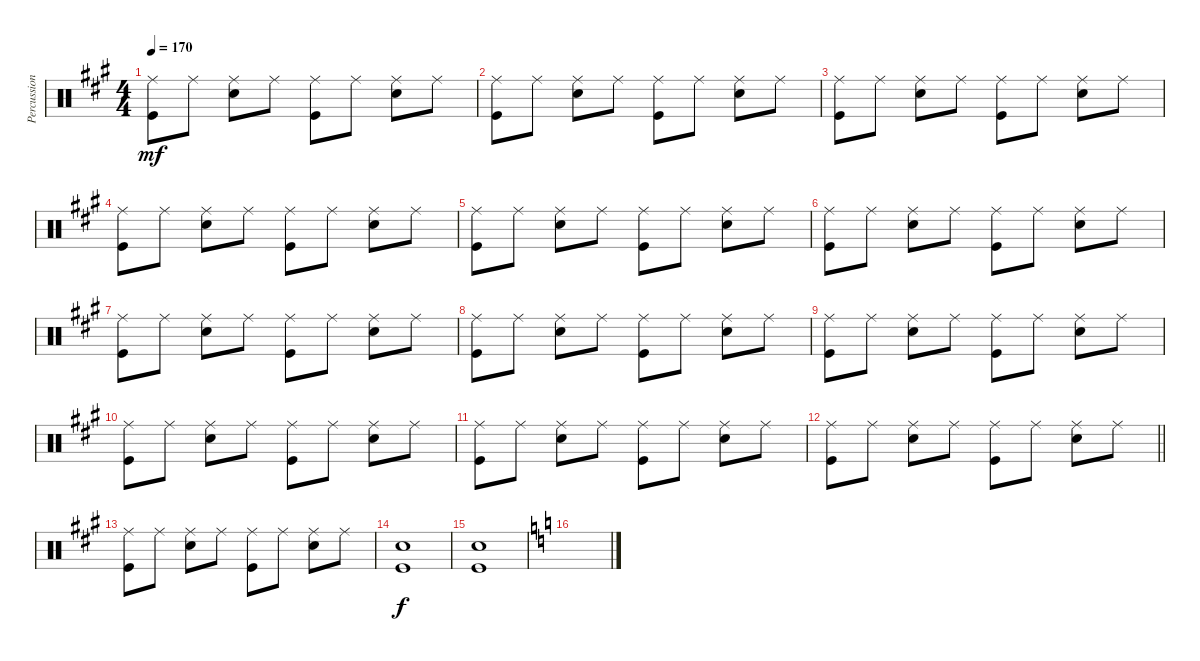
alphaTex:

\track ("Percussion" "Percussion") {instrument percussion}
\staff {score}
\articulation defaults
\ts (4 4)
\tempo 170
\clef neutral
\ks a
("Ride (middle)" "Kick (hit)").8{dy mf} "Ride (middle)".8 ("Ride (middle)" "Snare (hit) 2").8 "Ride (middle)".8 ("Ride (middle)" "Kick (hit)").8 "Ride (middle)".8 ("Ride (middle)" "Snare (hit) 2").8 "Ride (middle)".8 |
("Ride (middle)" "Kick (hit)").8 "Ride (middle)".8 ("Ride (middle)" "Snare (hit) 2").8 "Ride (middle)".8 ("Ride (middle)" "Kick (hit)").8 "Ride (middle)".8 ("Ride (middle)" "Snare (hit) 2").8 "Ride (middle)".8 |
("Ride (middle)" "Kick (hit)").8 "Ride (middle)".8 ("Ride (middle)" "Snare (hit) 2").8 "Ride (middle)".8 ("Ride (middle)" "Kick (hit)").8 "Ride (middle)".8 ("Ride (middle)" "Snare (hit) 2").8 "Ride (middle)".8 |
("Ride (middle)" "Kick (hit)").8 "Ride (middle)".8 ("Ride (middle)" "Snare (hit) 2").8 "Ride (middle)".8 ("Ride (middle)" "Kick (hit)").8 "Ride (middle)".8 ("Ride (middle)" "Snare (hit) 2").8 "Ride (middle)".8 |
("Ride (middle)" "Kick (hit)").8 "Ride (middle)".8 ("Ride (middle)" "Snare (hit) 2").8 "Ride (middle)".8 ("Ride (middle)" "Kick (hit)").8 "Ride (middle)".8 ("Ride (middle)" "Snare (hit) 2").8 "Ride (middle)".8 |
("Ride (middle)" "Kick (hit)").8 "Ride (middle)".8 ("Ride (middle)" "Snare (hit) 2").8 "Ride (middle)".8 ("Ride (middle)" "Kick (hit)").8 "Ride (middle)".8 ("Ride (middle)" "Snare (hit) 2").8 "Ride (middle)".8 |
("Ride (middle)" "Kick (hit)").8 "Ride (middle)".8 ("Ride (middle)" "Snare (hit) 2").8 "Ride (middle)".8 ("Ride (middle)" "Kick (hit)").8 "Ride (middle)".8 ("Ride (middle)" "Snare (hit) 2").8 "Ride (middle)".8 |
("Ride (middle)" "Kick (hit)").8 "Ride (middle)".8 ("Ride (middle)" "Snare (hit) 2").8 "Ride (middle)".8 ("Ride (middle)" "Kick (hit)").8 "Ride (middle)".8 ("Ride (middle)" "Snare (hit) 2").8 "Ride (middle)".8 |
("Ride (middle)" "Kick (hit)").8 "Ride (middle)".8 ("Ride (middle)" "Snare (hit) 2").8 "Ride (middle)".8 ("Ride (middle)" "Kick (hit)").8 "Ride (middle)".8 ("Ride (middle)" "Snare (hit) 2").8 "Ride (middle)".8 |
("Ride (middle)" "Kick (hit)").8 "Ride (middle)".8 ("Ride (middle)" "Snare (hit) 2").8 "Ride (middle)".8 ("Ride (middle)" "Kick (hit)").8 "Ride (middle)".8 ("Ride (middle)" "Snare (hit) 2").8 "Ride (middle)".8 |
("Ride (middle)" "Kick (hit)").8 "Ride (middle)".8 ("Ride (middle)" "Snare (hit) 2").8 "Ride (middle)".8 ("Ride (middle)" "Kick (hit)").8 "Ride (middle)".8 ("Ride (middle)" "Snare (hit) 2").8 "Ride (middle)".8 |
\barLineRight lightlight
("Ride (middle)" "Kick (hit)").8 "Ride (middle)".8 ("Ride (middle)" "Snare (hit) 2").8 "Ride (middle)".8 ("Ride (middle)" "Kick (hit)").8 "Ride (middle)".8 ("Ride (middle)" "Snare (hit) 2").8 "Ride (middle)".8 |
("Ride (middle)" "Kick (hit)").8 "Ride (middle)".8 ("Ride (middle)" "Snare (hit) 2").8 "Ride (middle)".8 ("Ride (middle)" "Kick (hit)").8 "Ride (middle)".8 ("Ride (middle)" "Snare (hit) 2").8 "Ride (middle)".8 |
("Snare (hit) 2" "Kick (hit)").1{dy f} |
("Snare (hit) 2" "Kick (hit)").1 |
\ks c
